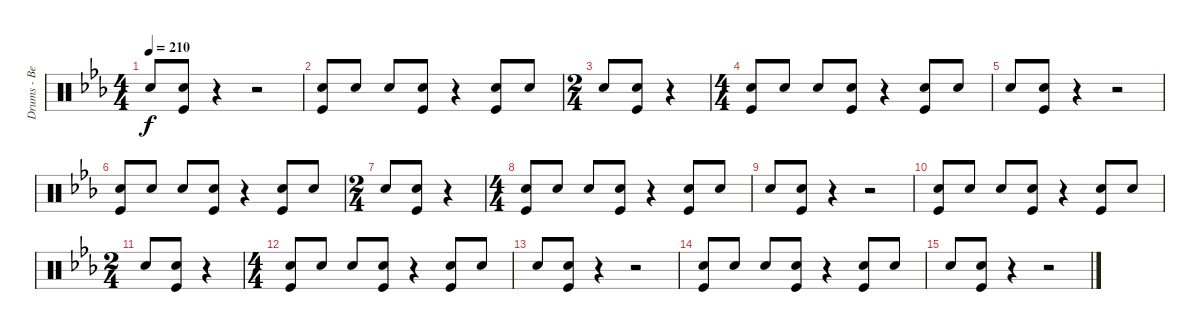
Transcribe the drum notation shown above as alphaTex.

\track ("Drums - Ben Johnston" "Drums - Be") {instrument percussion}
\staff {score}
\articulation defaults
\ts (4 4)
\tempo 210
\clef neutral
\ks cminor "Snare (hit) 2".8{dy f}
("Snare (hit) 2" "Kick (hit)").8 r.4 r.2 |
("Snare (hit) 2" "Kick (hit)").8 "Snare (hit) 2".8 "Snare (hit) 2".8 ("Snare (hit) 2" "Kick (hit)").8 r.4 ("Snare (hit) 2" "Kick (hit)").8 "Snare (hit) 2".8 |
\ts (2 4)
"Snare (hit) 2".8 ("Snare (hit) 2" "Kick (hit)").8 r.4 |
\ts (4 4)
("Snare (hit) 2" "Kick (hit)").8 "Snare (hit) 2".8 "Snare (hit) 2".8 ("Snare (hit) 2" "Kick (hit)").8 r.4 ("Snare (hit) 2" "Kick (hit)").8 "Snare (hit) 2".8 |
"Snare (hit) 2".8 ("Snare (hit) 2" "Kick (hit)").8 r.4 r.2 |
("Snare (hit) 2" "Kick (hit)").8 "Snare (hit) 2".8 "Snare (hit) 2".8 ("Snare (hit) 2" "Kick (hit)").8 r.4 ("Snare (hit) 2" "Kick (hit)").8 "Snare (hit) 2".8 |
\ts (2 4)
"Snare (hit) 2".8 ("Snare (hit) 2" "Kick (hit)").8 r.4 |
\ts (4 4)
("Snare (hit) 2" "Kick (hit)").8 "Snare (hit) 2".8 "Snare (hit) 2".8 ("Snare (hit) 2" "Kick (hit)").8 r.4 ("Snare (hit) 2" "Kick (hit)").8 "Snare (hit) 2".8 |
"Snare (hit) 2".8 ("Snare (hit) 2" "Kick (hit)").8 r.4 r.2 |
("Snare (hit) 2" "Kick (hit)").8 "Snare (hit) 2".8 "Snare (hit) 2".8 ("Snare (hit) 2" "Kick (hit)").8 r.4 ("Snare (hit) 2" "Kick (hit)").8 "Snare (hit) 2".8 |
\ts (2 4)
"Snare (hit) 2".8 ("Snare (hit) 2" "Kick (hit)").8 r.4 |
\ts (4 4)
("Snare (hit) 2" "Kick (hit)").8 "Snare (hit) 2".8 "Snare (hit) 2".8 ("Snare (hit) 2" "Kick (hit)").8 r.4 ("Snare (hit) 2" "Kick (hit)").8 "Snare (hit) 2".8 |
"Snare (hit) 2".8 ("Snare (hit) 2" "Kick (hit)").8 r.4 r.2 |
("Snare (hit) 2" "Kick (hit)").8 "Snare (hit) 2".8 "Snare (hit) 2".8 ("Snare (hit) 2" "Kick (hit)").8 r.4 ("Snare (hit) 2" "Kick (hit)").8 "Snare (hit) 2".8 |
"Snare (hit) 2".8 ("Snare (hit) 2" "Kick (hit)").8 r.4 r.2
